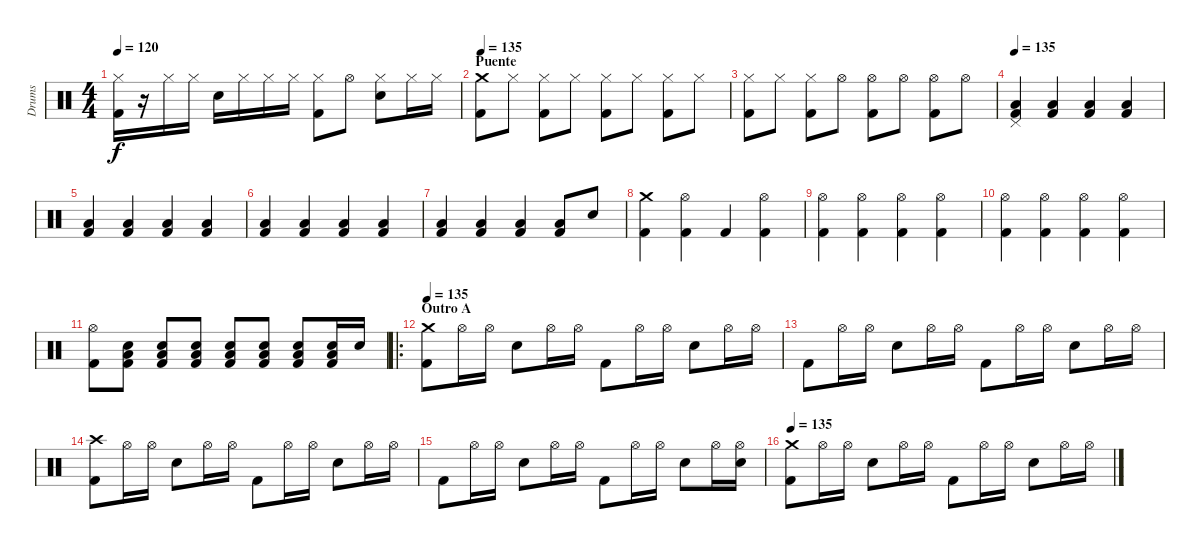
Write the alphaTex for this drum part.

\track ("Drums" "Drums") {instrument percussion}
\staff {score}
\articulation defaults
\ts (4 4)
\tempo 120
\clef neutral
\ks c
("Hi-Hat (closed)" "Kick (hit) 2").16{dy f} r.16 "Hi-Hat (closed)".16 "Hi-Hat (closed)".16 "Electric Snare (hit)".16 "Hi-Hat (closed)".16 "Hi-Hat (closed)".16 "Hi-Hat (closed)".16 ("Hi-Hat (closed)" "Kick (hit) 2").8 "Hi-Hat (open)".8 ("Hi-Hat (closed)" "Electric Snare (hit)").8 "Hi-Hat (closed)".16 "Hi-Hat (closed)".16 |
\section ("" "Puente")
\tempo 135
("Crash medium (hit)" "Kick (hit) 2").8 "Hi-Hat (closed)".8 ("Hi-Hat (closed)" "Kick (hit) 2").8 "Hi-Hat (closed)".8 ("Hi-Hat (closed)" "Kick (hit) 2").8 "Hi-Hat (closed)".8 ("Hi-Hat (closed)" "Kick (hit) 2").8 "Hi-Hat (closed)".8 |
("Hi-Hat (closed)" "Kick (hit) 2").8 "Hi-Hat (closed)".8 ("Hi-Hat (closed)" "Kick (hit) 2").8 "Hi-Hat (open)".8 ("Hi-Hat (open)" "Kick (hit) 2").8 "Hi-Hat (open)".8 ("Hi-Hat (open)" "Kick (hit) 2").8 "Hi-Hat (open)".8 |
\tempo 135
("Pedal Hi-Hat (hit)" "Low Floor Tom (hit)" "Kick (hit) 2").4 ("Low Floor Tom (hit)" "Kick (hit) 2").4 ("Low Floor Tom (hit)" "Kick (hit) 2").4 ("Low Floor Tom (hit)" "Kick (hit) 2").4 |
("Low Floor Tom (hit)" "Kick (hit) 2").4 ("Low Floor Tom (hit)" "Kick (hit) 2").4 ("Low Floor Tom (hit)" "Kick (hit) 2").4 ("Low Floor Tom (hit)" "Kick (hit) 2").4 |
("Low Floor Tom (hit)" "Kick (hit) 2").4 ("Low Floor Tom (hit)" "Kick (hit) 2").4 ("Low Floor Tom (hit)" "Kick (hit) 2").4 ("Low Floor Tom (hit)" "Kick (hit) 2").4 |
("Low Floor Tom (hit)" "Kick (hit) 2").4 ("Low Floor Tom (hit)" "Kick (hit) 2").4 ("Low Floor Tom (hit)" "Kick (hit) 2").4 ("Low Floor Tom (hit)" "Kick (hit) 2").8 "Electric Snare (hit)".8 |
("Crash medium (hit)" "Kick (hit) 2").4 ("Hi-Hat (open)" "Kick (hit) 2").4 "Kick (hit) 2".4 ("Hi-Hat (open)" "Kick (hit) 2").4 |
("Hi-Hat (open)" "Kick (hit) 2").4 ("Hi-Hat (open)" "Kick (hit) 2").4 ("Hi-Hat (open)" "Kick (hit) 2").4 ("Hi-Hat (open)" "Kick (hit) 2").4 |
("Hi-Hat (open)" "Kick (hit) 2").4 ("Hi-Hat (open)" "Kick (hit) 2").4 ("Hi-Hat (open)" "Kick (hit) 2").4 ("Hi-Hat (open)" "Kick (hit) 2").4 |
("Hi-Hat (open)" "Kick (hit) 2").8 ("Low Floor Tom (hit)" "Electric Snare (hit)" "Kick (hit) 2").8 ("Low Floor Tom (hit)" "Electric Snare (hit)" "Kick (hit) 2").8 ("Low Floor Tom (hit)" "Electric Snare (hit)" "Kick (hit) 2").8 ("Low Floor Tom (hit)" "Electric Snare (hit)" "Kick (hit) 2").8 ("Low Floor Tom (hit)" "Electric Snare (hit)" "Kick (hit) 2").8 ("Low Floor Tom (hit)" "Electric Snare (hit)" "Kick (hit) 2").8 ("Low Floor Tom (hit)" "Electric Snare (hit)" "Kick (hit) 2").16 "Electric Snare (hit)".16 |
\ro
\section ("" "Outro A")
\tempo 135
("Crash medium (hit)" "Kick (hit) 2").8 "Hi-Hat (open)".16 "Hi-Hat (open)".16 "Electric Snare (hit)".8 "Hi-Hat (open)".16 "Hi-Hat (open)".16 "Kick (hit) 2".8 "Hi-Hat (open)".16 "Hi-Hat (open)".16 "Electric Snare (hit)".8 "Hi-Hat (open)".16 "Hi-Hat (open)".16 |
"Kick (hit) 2".8 "Hi-Hat (open)".16 "Hi-Hat (open)".16 "Electric Snare (hit)".8 "Hi-Hat (open)".16 "Hi-Hat (open)".16 "Kick (hit) 2".8 "Hi-Hat (open)".16 "Hi-Hat (open)".16 "Electric Snare (hit)".8 "Hi-Hat (open)".16 "Hi-Hat (open)".16 |
("Crash high (hit)" "Kick (hit) 2").8 "Hi-Hat (open)".16 "Hi-Hat (open)".16 "Electric Snare (hit)".8 "Hi-Hat (open)".16 "Hi-Hat (open)".16 "Kick (hit) 2".8 "Hi-Hat (open)".16 "Hi-Hat (open)".16 "Electric Snare (hit)".8 "Hi-Hat (open)".16 "Hi-Hat (open)".16 |
"Kick (hit) 2".8 "Hi-Hat (open)".16 "Hi-Hat (open)".16 "Electric Snare (hit)".8 "Hi-Hat (open)".16 "Hi-Hat (open)".16 "Kick (hit) 2".8 "Hi-Hat (open)".16 "Hi-Hat (open)".16 "Electric Snare (hit)".8 "Hi-Hat (open)".16 ("Hi-Hat (open)" "Electric Snare (hit)").16 |
\tempo 135
("Crash medium (hit)" "Kick (hit) 2").8 "Hi-Hat (open)".16 "Hi-Hat (open)".16 "Electric Snare (hit)".8 "Hi-Hat (open)".16 "Hi-Hat (open)".16 "Kick (hit) 2".8 "Hi-Hat (open)".16 "Hi-Hat (open)".16 "Electric Snare (hit)".8 "Hi-Hat (open)".16 "Hi-Hat (open)".16
